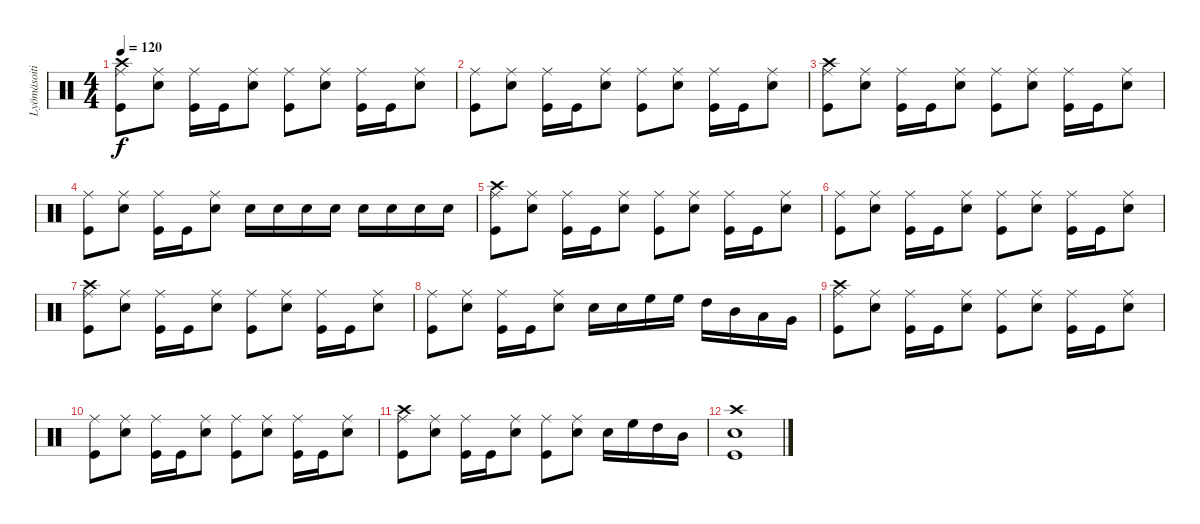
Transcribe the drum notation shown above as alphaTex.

\track ("Lyömäsoitin" "Lyömäsoiti") {instrument percussion}
\staff {score}
\articulation defaults
\ts (4 4)
\tempo 120
\clef neutral
\ks c
("Ride (middle)" "Kick (hit)" "Crash high (hit)").8{dy f} ("Ride (middle)" "Snare (hit) 2").8 ("Ride (middle)" "Kick (hit)").16 "Kick (hit)".16 ("Ride (middle)" "Snare (hit) 2").8 ("Ride (middle)" "Kick (hit)").8 ("Ride (middle)" "Snare (hit) 2").8 ("Ride (middle)" "Kick (hit)").16 "Kick (hit)".16 ("Ride (middle)" "Snare (hit) 2").8 |
("Ride (middle)" "Kick (hit)").8 ("Ride (middle)" "Snare (hit) 2").8 ("Ride (middle)" "Kick (hit)").16 "Kick (hit)".16 ("Ride (middle)" "Snare (hit) 2").8 ("Ride (middle)" "Kick (hit)").8 ("Ride (middle)" "Snare (hit) 2").8 ("Ride (middle)" "Kick (hit)").16 "Kick (hit)".16 ("Ride (middle)" "Snare (hit) 2").8 |
("Ride (middle)" "Kick (hit)" "Crash high (hit)").8 ("Ride (middle)" "Snare (hit) 2").8 ("Ride (middle)" "Kick (hit)").16 "Kick (hit)".16 ("Ride (middle)" "Snare (hit) 2").8 ("Ride (middle)" "Kick (hit)").8 ("Ride (middle)" "Snare (hit) 2").8 ("Ride (middle)" "Kick (hit)").16 "Kick (hit)".16 ("Ride (middle)" "Snare (hit) 2").8 |
("Ride (middle)" "Kick (hit)").8 ("Ride (middle)" "Snare (hit) 2").8 ("Ride (middle)" "Kick (hit)").16 "Kick (hit)".16 ("Ride (middle)" "Snare (hit) 2").8 "Snare (hit) 2".16 "Snare (hit) 2".16 "Snare (hit) 2".16 "Snare (hit) 2".16 "Snare (hit) 2".16 "Snare (hit) 2".16 "Snare (hit) 2".16 "Snare (hit) 2".16 |
("Ride (middle)" "Kick (hit)" "Crash high (hit)").8 ("Ride (middle)" "Snare (hit) 2").8 ("Ride (middle)" "Kick (hit)").16 "Kick (hit)".16 ("Ride (middle)" "Snare (hit) 2").8 ("Ride (middle)" "Kick (hit)").8 ("Ride (middle)" "Snare (hit) 2").8 ("Ride (middle)" "Kick (hit)").16 "Kick (hit)".16 ("Ride (middle)" "Snare (hit) 2").8 |
("Ride (middle)" "Kick (hit)").8 ("Ride (middle)" "Snare (hit) 2").8 ("Ride (middle)" "Kick (hit)").16 "Kick (hit)".16 ("Ride (middle)" "Snare (hit) 2").8 ("Ride (middle)" "Kick (hit)").8 ("Ride (middle)" "Snare (hit) 2").8 ("Ride (middle)" "Kick (hit)").16 "Kick (hit)".16 ("Ride (middle)" "Snare (hit) 2").8 |
("Ride (middle)" "Kick (hit)" "Crash high (hit)").8 ("Ride (middle)" "Snare (hit) 2").8 ("Ride (middle)" "Kick (hit)").16 "Kick (hit)".16 ("Ride (middle)" "Snare (hit) 2").8 ("Ride (middle)" "Kick (hit)").8 ("Ride (middle)" "Snare (hit) 2").8 ("Ride (middle)" "Kick (hit)").16 "Kick (hit)".16 ("Ride (middle)" "Snare (hit) 2").8 |
("Ride (middle)" "Kick (hit)").8 ("Ride (middle)" "Snare (hit) 2").8 ("Ride (middle)" "Kick (hit)").16 "Kick (hit)".16 ("Ride (middle)" "Snare (hit) 2").8 "Snare (hit) 2".16 "Snare (hit) 2".16 "High Floor Tom (hit)".16 "High Floor Tom (hit)".16 "High Tom (hit)".16 "Mid Tom (hit)".16 "Low Tom (hit)".16 "Very Low Tom (hit)".16 |
("Ride (middle)" "Kick (hit)" "Crash high (hit)").8 ("Ride (middle)" "Snare (hit) 2").8 ("Ride (middle)" "Kick (hit)").16 "Kick (hit)".16 ("Ride (middle)" "Snare (hit) 2").8 ("Ride (middle)" "Kick (hit)").8 ("Ride (middle)" "Snare (hit) 2").8 ("Ride (middle)" "Kick (hit)").16 "Kick (hit)".16 ("Ride (middle)" "Snare (hit) 2").8 |
("Ride (middle)" "Kick (hit)").8 ("Ride (middle)" "Snare (hit) 2").8 ("Ride (middle)" "Kick (hit)").16 "Kick (hit)".16 ("Ride (middle)" "Snare (hit) 2").8 ("Ride (middle)" "Kick (hit)").8 ("Ride (middle)" "Snare (hit) 2").8 ("Ride (middle)" "Kick (hit)").16 "Kick (hit)".16 ("Ride (middle)" "Snare (hit) 2").8 |
("Ride (middle)" "Kick (hit)" "Crash high (hit)").8 ("Ride (middle)" "Snare (hit) 2").8 ("Ride (middle)" "Kick (hit)").16 "Kick (hit)".16 ("Ride (middle)" "Snare (hit) 2").8 ("Ride (middle)" "Kick (hit)").8 ("Ride (middle)" "Snare (hit) 2").8 "Snare (hit) 2".16 "High Floor Tom (hit)".16 "High Tom (hit)".16 "Mid Tom (hit)".16 |
("Crash high (hit)" "Snare (hit) 2" "Kick (hit)").1
